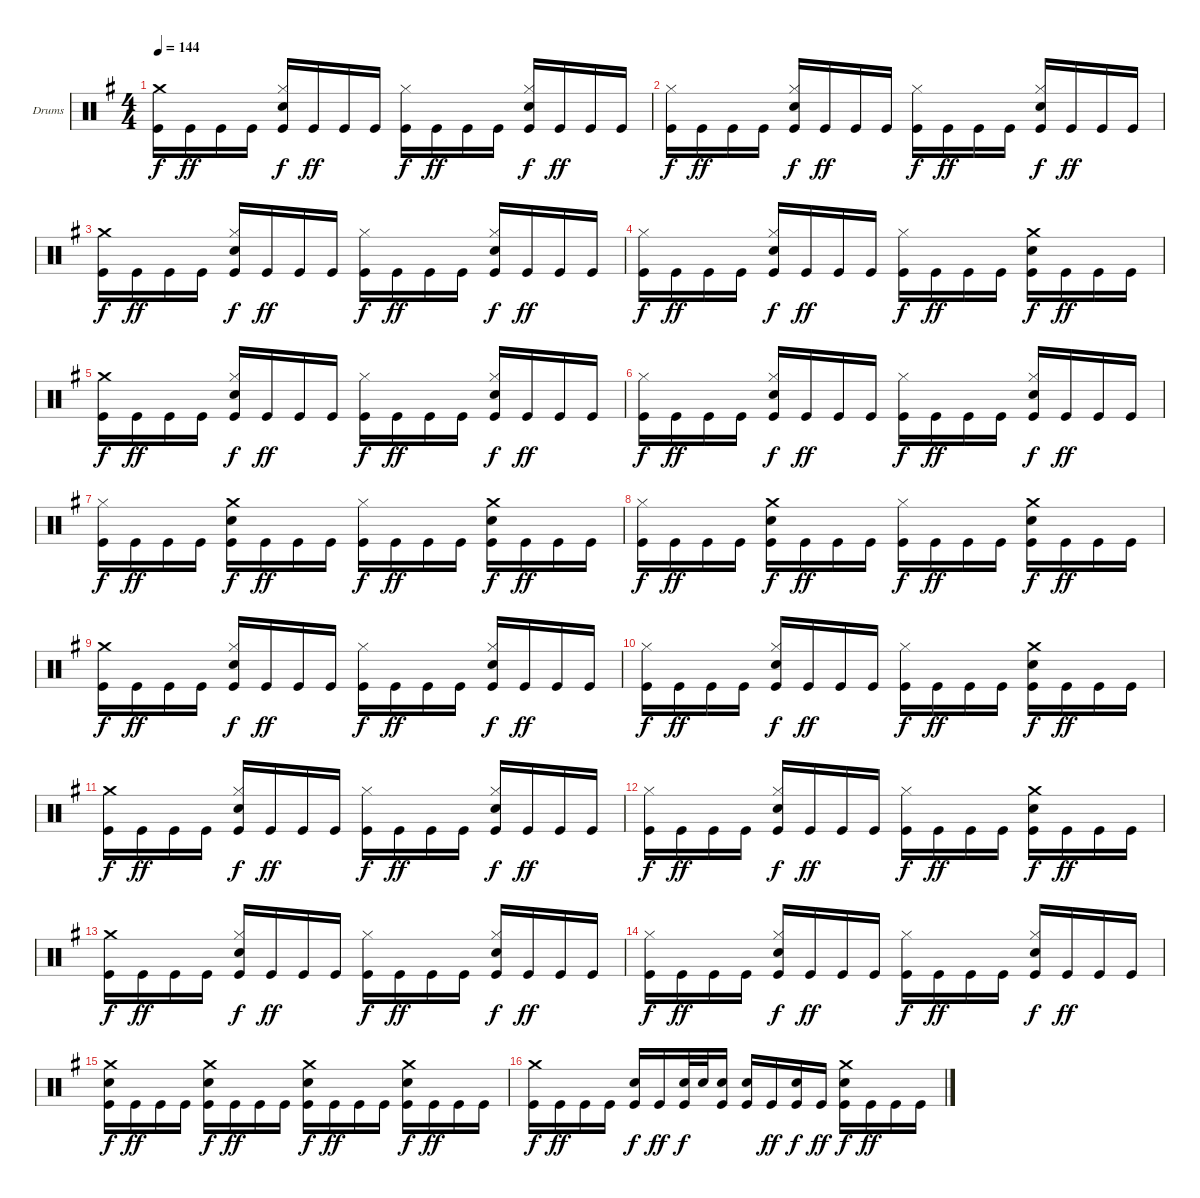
\bracketExtendMode groupsimilarinstruments
\firstSystemTrackNameOrientation horizontal
\otherSystemsTrackNameOrientation horizontal
\track ("Drumkit" "Drums") {instrument percussion}
\staff {score}
\articulation defaults
\ts (4 4)
\tempo 144
\clef neutral
\ks g
("Crash medium (hit)" "Kick (hit)").16{dy f} "Kick (hit)".16{dy ff} "Kick (hit)".16 "Kick (hit)".16 ("Hi-Hat (closed)" "Snare (hit) 2" "Kick (hit)").16{dy f} "Kick (hit)".16{dy ff} "Kick (hit)".16 "Kick (hit)".16 ("Hi-Hat (closed)" "Kick (hit)").16{dy f} "Kick (hit)".16{dy ff} "Kick (hit)".16 "Kick (hit)".16 ("Hi-Hat (closed)" "Snare (hit) 2" "Kick (hit)").16{dy f} "Kick (hit)".16{dy ff} "Kick (hit)".16 "Kick (hit)".16 |
("Hi-Hat (closed)" "Kick (hit)").16{dy f} "Kick (hit)".16{dy ff} "Kick (hit)".16 "Kick (hit)".16 ("Hi-Hat (closed)" "Snare (hit) 2" "Kick (hit)").16{dy f} "Kick (hit)".16{dy ff} "Kick (hit)".16 "Kick (hit)".16 ("Hi-Hat (closed)" "Kick (hit)").16{dy f} "Kick (hit)".16{dy ff} "Kick (hit)".16 "Kick (hit)".16 ("Hi-Hat (closed)" "Snare (hit) 2" "Kick (hit)").16{dy f} "Kick (hit)".16{dy ff} "Kick (hit)".16 "Kick (hit)".16 |
("Crash medium (hit)" "Kick (hit)").16{dy f} "Kick (hit)".16{dy ff} "Kick (hit)".16 "Kick (hit)".16 ("Hi-Hat (closed)" "Snare (hit) 2" "Kick (hit)").16{dy f} "Kick (hit)".16{dy ff} "Kick (hit)".16 "Kick (hit)".16 ("Hi-Hat (closed)" "Kick (hit)").16{dy f} "Kick (hit)".16{dy ff} "Kick (hit)".16 "Kick (hit)".16 ("Hi-Hat (closed)" "Snare (hit) 2" "Kick (hit)").16{dy f} "Kick (hit)".16{dy ff} "Kick (hit)".16 "Kick (hit)".16 |
("Hi-Hat (closed)" "Kick (hit)").16{dy f} "Kick (hit)".16{dy ff} "Kick (hit)".16 "Kick (hit)".16 ("Hi-Hat (closed)" "Snare (hit) 2" "Kick (hit)").16{dy f} "Kick (hit)".16{dy ff} "Kick (hit)".16 "Kick (hit)".16 ("Hi-Hat (closed)" "Kick (hit)").16{dy f} "Kick (hit)".16{dy ff} "Kick (hit)".16 "Kick (hit)".16 ("Crash medium (hit)" "Snare (hit) 2" "Kick (hit)").16{dy f} "Kick (hit)".16{dy ff} "Kick (hit)".16 "Kick (hit)".16 |
("Crash medium (hit)" "Kick (hit)").16{dy f} "Kick (hit)".16{dy ff} "Kick (hit)".16 "Kick (hit)".16 ("Hi-Hat (closed)" "Snare (hit) 2" "Kick (hit)").16{dy f} "Kick (hit)".16{dy ff} "Kick (hit)".16 "Kick (hit)".16 ("Hi-Hat (closed)" "Kick (hit)").16{dy f} "Kick (hit)".16{dy ff} "Kick (hit)".16 "Kick (hit)".16 ("Hi-Hat (closed)" "Snare (hit) 2" "Kick (hit)").16{dy f} "Kick (hit)".16{dy ff} "Kick (hit)".16 "Kick (hit)".16 |
("Hi-Hat (closed)" "Kick (hit)").16{dy f} "Kick (hit)".16{dy ff} "Kick (hit)".16 "Kick (hit)".16 ("Hi-Hat (closed)" "Snare (hit) 2" "Kick (hit)").16{dy f} "Kick (hit)".16{dy ff} "Kick (hit)".16 "Kick (hit)".16 ("Hi-Hat (closed)" "Kick (hit)").16{dy f} "Kick (hit)".16{dy ff} "Kick (hit)".16 "Kick (hit)".16 ("Hi-Hat (closed)" "Snare (hit) 2" "Kick (hit)").16{dy f} "Kick (hit)".16{dy ff} "Kick (hit)".16 "Kick (hit)".16 |
("Hi-Hat (closed)" "Kick (hit)").16{dy f} "Kick (hit)".16{dy ff} "Kick (hit)".16 "Kick (hit)".16 ("Crash medium (hit)" "Snare (hit) 2" "Kick (hit)").16{dy f} "Kick (hit)".16{dy ff} "Kick (hit)".16 "Kick (hit)".16 ("Hi-Hat (closed)" "Kick (hit)").16{dy f} "Kick (hit)".16{dy ff} "Kick (hit)".16 "Kick (hit)".16 ("Crash medium (hit)" "Snare (hit) 2" "Kick (hit)").16{dy f} "Kick (hit)".16{dy ff} "Kick (hit)".16 "Kick (hit)".16 |
("Hi-Hat (closed)" "Kick (hit)").16{dy f} "Kick (hit)".16{dy ff} "Kick (hit)".16 "Kick (hit)".16 ("Crash medium (hit)" "Snare (hit) 2" "Kick (hit)").16{dy f} "Kick (hit)".16{dy ff} "Kick (hit)".16 "Kick (hit)".16 ("Hi-Hat (closed)" "Kick (hit)").16{dy f} "Kick (hit)".16{dy ff} "Kick (hit)".16 "Kick (hit)".16 ("Crash medium (hit)" "Snare (hit) 2" "Kick (hit)").16{dy f} "Kick (hit)".16{dy ff} "Kick (hit)".16 "Kick (hit)".16 |
("Crash medium (hit)" "Kick (hit)").16{dy f} "Kick (hit)".16{dy ff} "Kick (hit)".16 "Kick (hit)".16 ("Hi-Hat (closed)" "Snare (hit) 2" "Kick (hit)").16{dy f} "Kick (hit)".16{dy ff} "Kick (hit)".16 "Kick (hit)".16 ("Hi-Hat (closed)" "Kick (hit)").16{dy f} "Kick (hit)".16{dy ff} "Kick (hit)".16 "Kick (hit)".16 ("Hi-Hat (closed)" "Snare (hit) 2" "Kick (hit)").16{dy f} "Kick (hit)".16{dy ff} "Kick (hit)".16 "Kick (hit)".16 |
("Hi-Hat (closed)" "Kick (hit)").16{dy f} "Kick (hit)".16{dy ff} "Kick (hit)".16 "Kick (hit)".16 ("Hi-Hat (closed)" "Snare (hit) 2" "Kick (hit)").16{dy f} "Kick (hit)".16{dy ff} "Kick (hit)".16 "Kick (hit)".16 ("Hi-Hat (closed)" "Kick (hit)").16{dy f} "Kick (hit)".16{dy ff} "Kick (hit)".16 "Kick (hit)".16 ("Crash medium (hit)" "Snare (hit) 2" "Kick (hit)").16{dy f} "Kick (hit)".16{dy ff} "Kick (hit)".16 "Kick (hit)".16 |
("Crash medium (hit)" "Kick (hit)").16{dy f} "Kick (hit)".16{dy ff} "Kick (hit)".16 "Kick (hit)".16 ("Hi-Hat (closed)" "Snare (hit) 2" "Kick (hit)").16{dy f} "Kick (hit)".16{dy ff} "Kick (hit)".16 "Kick (hit)".16 ("Hi-Hat (closed)" "Kick (hit)").16{dy f} "Kick (hit)".16{dy ff} "Kick (hit)".16 "Kick (hit)".16 ("Hi-Hat (closed)" "Snare (hit) 2" "Kick (hit)").16{dy f} "Kick (hit)".16{dy ff} "Kick (hit)".16 "Kick (hit)".16 |
("Hi-Hat (closed)" "Kick (hit)").16{dy f} "Kick (hit)".16{dy ff} "Kick (hit)".16 "Kick (hit)".16 ("Hi-Hat (closed)" "Snare (hit) 2" "Kick (hit)").16{dy f} "Kick (hit)".16{dy ff} "Kick (hit)".16 "Kick (hit)".16 ("Hi-Hat (closed)" "Kick (hit)").16{dy f} "Kick (hit)".16{dy ff} "Kick (hit)".16 "Kick (hit)".16 ("Crash medium (hit)" "Snare (hit) 2" "Kick (hit)").16{dy f} "Kick (hit)".16{dy ff} "Kick (hit)".16 "Kick (hit)".16 |
("Crash medium (hit)" "Kick (hit)").16{dy f} "Kick (hit)".16{dy ff} "Kick (hit)".16 "Kick (hit)".16 ("Hi-Hat (closed)" "Snare (hit) 2" "Kick (hit)").16{dy f} "Kick (hit)".16{dy ff} "Kick (hit)".16 "Kick (hit)".16 ("Hi-Hat (closed)" "Kick (hit)").16{dy f} "Kick (hit)".16{dy ff} "Kick (hit)".16 "Kick (hit)".16 ("Hi-Hat (closed)" "Snare (hit) 2" "Kick (hit)").16{dy f} "Kick (hit)".16{dy ff} "Kick (hit)".16 "Kick (hit)".16 |
("Hi-Hat (closed)" "Kick (hit)").16{dy f} "Kick (hit)".16{dy ff} "Kick (hit)".16 "Kick (hit)".16 ("Hi-Hat (closed)" "Snare (hit) 2" "Kick (hit)").16{dy f} "Kick (hit)".16{dy ff} "Kick (hit)".16 "Kick (hit)".16 ("Hi-Hat (closed)" "Kick (hit)").16{dy f} "Kick (hit)".16{dy ff} "Kick (hit)".16 "Kick (hit)".16 ("Hi-Hat (closed)" "Snare (hit) 2" "Kick (hit)").16{dy f} "Kick (hit)".16{dy ff} "Kick (hit)".16 "Kick (hit)".16 |
("Crash medium (hit)" "Snare (hit) 2" "Kick (hit)").16{dy f} "Kick (hit)".16{dy ff} "Kick (hit)".16 "Kick (hit)".16 ("Crash medium (hit)" "Snare (hit) 2" "Kick (hit)").16{dy f} "Kick (hit)".16{dy ff} "Kick (hit)".16 "Kick (hit)".16 ("Crash medium (hit)" "Snare (hit) 2" "Kick (hit)").16{dy f} "Kick (hit)".16{dy ff} "Kick (hit)".16 "Kick (hit)".16 ("Crash medium (hit)" "Snare (hit) 2" "Kick (hit)").16{dy f} "Kick (hit)".16{dy ff} "Kick (hit)".16 "Kick (hit)".16 |
("Crash medium (hit)" "Kick (hit)").16{dy f} "Kick (hit)".16{dy ff} "Kick (hit)".16 "Kick (hit)".16 ("Snare (hit) 2" "Kick (hit)").16{dy f} "Kick (hit)".16{dy ff} ("Snare (hit) 2" "Kick (hit)").32{dy f} "Snare (hit) 2".32 ("Snare (hit) 2" "Kick (hit)").16 ("Snare (hit) 2" "Kick (hit)").16 "Kick (hit)".16{dy ff} ("Snare (hit) 2" "Kick (hit)").16{dy f} "Kick (hit)".16{dy ff} ("Crash medium (hit)" "Snare (hit) 2" "Kick (hit)").16{dy f} "Kick (hit)".16{dy ff} "Kick (hit)".16 "Kick (hit)".16
